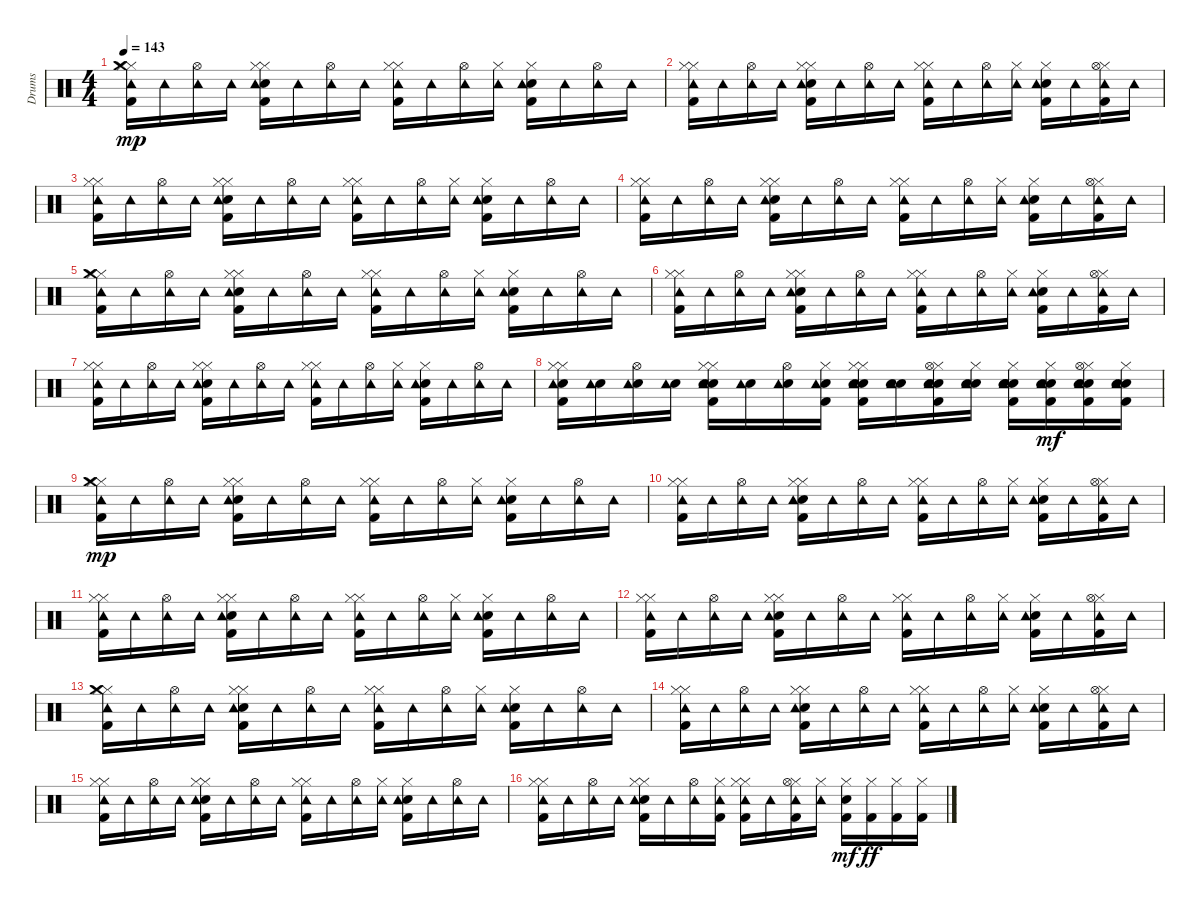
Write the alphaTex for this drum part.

\track ("Drums" "Drums") {instrument percussion}
\staff {score}
\articulation defaults
\ts (4 4)
\tempo 143
\clef neutral
\ks c
("Hi-Hat (closed)" "Kick (hit) 2" "Hi-Hat (closed)" "Tambourine (hit)" "Crash medium (hit)").16{dy mp} "Tambourine (hit)".16 ("Hi-Hat (open)" "Tambourine (hit)").16 "Tambourine (hit)".16 ("Hi-Hat (closed)" "Kick (hit) 2" "Hand Clap (hit)" "Hi-Hat (closed)" "Tambourine (hit)").16 "Tambourine (hit)".16 ("Hi-Hat (open)" "Tambourine (hit)").16 "Tambourine (hit)".16 ("Hi-Hat (closed)" "Kick (hit) 2" "Hi-Hat (closed)" "Tambourine (hit)").16 "Tambourine (hit)".16 ("Hi-Hat (open)" "Tambourine (hit)").16 ("Hi-Hat (closed)" "Tambourine (hit)").16 ("Hi-Hat (closed)" "Kick (hit) 2" "Hand Clap (hit)" "Tambourine (hit)").16 "Tambourine (hit)".16 ("Hi-Hat (open)" "Tambourine (hit)").16 "Tambourine (hit)".16 |
("Hi-Hat (closed)" "Kick (hit) 2" "Hi-Hat (closed)" "Tambourine (hit)").16 "Tambourine (hit)".16 ("Hi-Hat (open)" "Tambourine (hit)").16 "Tambourine (hit)".16 ("Hi-Hat (closed)" "Kick (hit) 2" "Hand Clap (hit)" "Hi-Hat (closed)" "Tambourine (hit)").16 "Tambourine (hit)".16 ("Hi-Hat (open)" "Tambourine (hit)").16 "Tambourine (hit)".16 ("Hi-Hat (closed)" "Kick (hit) 2" "Hi-Hat (closed)" "Tambourine (hit)").16 "Tambourine (hit)".16 ("Hi-Hat (open)" "Tambourine (hit)").16 ("Hi-Hat (closed)" "Tambourine (hit)").16 ("Hi-Hat (closed)" "Kick (hit) 2" "Hand Clap (hit)" "Tambourine (hit)").16 "Tambourine (hit)".16 ("Hi-Hat (closed)" "Kick (hit) 2" "Hi-Hat (open)" "Tambourine (hit)").16 "Tambourine (hit)".16 |
("Hi-Hat (closed)" "Kick (hit) 2" "Hi-Hat (closed)" "Tambourine (hit)").16 "Tambourine (hit)".16 ("Hi-Hat (open)" "Tambourine (hit)").16 "Tambourine (hit)".16 ("Hi-Hat (closed)" "Kick (hit) 2" "Hand Clap (hit)" "Hi-Hat (closed)" "Tambourine (hit)").16 "Tambourine (hit)".16 ("Hi-Hat (open)" "Tambourine (hit)").16 "Tambourine (hit)".16 ("Hi-Hat (closed)" "Kick (hit) 2" "Hi-Hat (closed)" "Tambourine (hit)").16 "Tambourine (hit)".16 ("Hi-Hat (open)" "Tambourine (hit)").16 ("Hi-Hat (closed)" "Tambourine (hit)").16 ("Hi-Hat (closed)" "Kick (hit) 2" "Hand Clap (hit)" "Tambourine (hit)").16 "Tambourine (hit)".16 ("Hi-Hat (open)" "Tambourine (hit)").16 "Tambourine (hit)".16 |
("Hi-Hat (closed)" "Kick (hit) 2" "Hi-Hat (closed)" "Tambourine (hit)").16 "Tambourine (hit)".16 ("Hi-Hat (open)" "Tambourine (hit)").16 "Tambourine (hit)".16 ("Hi-Hat (closed)" "Kick (hit) 2" "Hand Clap (hit)" "Hi-Hat (closed)" "Tambourine (hit)").16 "Tambourine (hit)".16 ("Hi-Hat (open)" "Tambourine (hit)").16 "Tambourine (hit)".16 ("Hi-Hat (closed)" "Kick (hit) 2" "Hi-Hat (closed)" "Tambourine (hit)").16 "Tambourine (hit)".16 ("Hi-Hat (open)" "Tambourine (hit)").16 ("Hi-Hat (closed)" "Tambourine (hit)").16 ("Hi-Hat (closed)" "Kick (hit) 2" "Hand Clap (hit)" "Tambourine (hit)").16 "Tambourine (hit)".16 ("Hi-Hat (closed)" "Kick (hit) 2" "Hi-Hat (open)" "Tambourine (hit)").16 "Tambourine (hit)".16 |
("Hi-Hat (closed)" "Kick (hit) 2" "Hi-Hat (closed)" "Tambourine (hit)" "Crash medium (hit)").16 "Tambourine (hit)".16 ("Hi-Hat (open)" "Tambourine (hit)").16 "Tambourine (hit)".16 ("Hi-Hat (closed)" "Kick (hit) 2" "Hand Clap (hit)" "Hi-Hat (closed)" "Tambourine (hit)").16 "Tambourine (hit)".16 ("Hi-Hat (open)" "Tambourine (hit)").16 "Tambourine (hit)".16 ("Hi-Hat (closed)" "Kick (hit) 2" "Hi-Hat (closed)" "Tambourine (hit)").16 "Tambourine (hit)".16 ("Hi-Hat (open)" "Tambourine (hit)").16 ("Hi-Hat (closed)" "Tambourine (hit)").16 ("Hi-Hat (closed)" "Kick (hit) 2" "Hand Clap (hit)" "Tambourine (hit)").16 "Tambourine (hit)".16 ("Hi-Hat (open)" "Tambourine (hit)").16 "Tambourine (hit)".16 |
("Hi-Hat (closed)" "Kick (hit) 2" "Hi-Hat (closed)" "Tambourine (hit)").16 "Tambourine (hit)".16 ("Hi-Hat (open)" "Tambourine (hit)").16 "Tambourine (hit)".16 ("Hi-Hat (closed)" "Kick (hit) 2" "Hand Clap (hit)" "Hi-Hat (closed)" "Tambourine (hit)").16 "Tambourine (hit)".16 ("Hi-Hat (open)" "Tambourine (hit)").16 "Tambourine (hit)".16 ("Hi-Hat (closed)" "Kick (hit) 2" "Hi-Hat (closed)" "Tambourine (hit)").16 "Tambourine (hit)".16 ("Hi-Hat (open)" "Tambourine (hit)").16 ("Hi-Hat (closed)" "Tambourine (hit)").16 ("Hi-Hat (closed)" "Kick (hit) 2" "Hand Clap (hit)" "Tambourine (hit)").16 "Tambourine (hit)".16 ("Hi-Hat (closed)" "Kick (hit) 2" "Hi-Hat (open)" "Tambourine (hit)").16 "Tambourine (hit)".16 |
("Hi-Hat (closed)" "Kick (hit) 2" "Hi-Hat (closed)" "Tambourine (hit)").16 "Tambourine (hit)".16 ("Hi-Hat (open)" "Tambourine (hit)").16 "Tambourine (hit)".16 ("Hi-Hat (closed)" "Kick (hit) 2" "Hand Clap (hit)" "Hi-Hat (closed)" "Tambourine (hit)").16 "Tambourine (hit)".16 ("Hi-Hat (open)" "Tambourine (hit)").16 "Tambourine (hit)".16 ("Hi-Hat (closed)" "Kick (hit) 2" "Hi-Hat (closed)" "Tambourine (hit)").16 "Tambourine (hit)".16 ("Hi-Hat (open)" "Tambourine (hit)").16 ("Hi-Hat (closed)" "Tambourine (hit)").16 ("Hi-Hat (closed)" "Kick (hit) 2" "Hand Clap (hit)" "Tambourine (hit)").16 "Tambourine (hit)".16 ("Hi-Hat (open)" "Tambourine (hit)").16 "Tambourine (hit)".16 |
("Hi-Hat (closed)" "Kick (hit) 2" "Snare (hit) 2" "Hi-Hat (closed)" "Tambourine (hit)").16 ("Snare (hit) 2" "Tambourine (hit)").16 ("Snare (hit) 2" "Hi-Hat (open)" "Tambourine (hit)").16 ("Snare (hit) 2" "Tambourine (hit)").16 ("Hi-Hat (closed)" "Kick (hit) 2" "Snare (hit) 2" "Hand Clap (hit)" "Hi-Hat (closed)" "Tambourine (hit)").16 ("Snare (hit) 2" "Tambourine (hit)").16 ("Snare (hit) 2" "Hi-Hat (open)" "Tambourine (hit)").16 ("Hi-Hat (closed)" "Kick (hit) 2" "Snare (hit) 2" "Tambourine (hit)").16 ("Hi-Hat (closed)" "Kick (hit) 2" "Snare (hit) 2" "Hi-Hat (closed)" "Tambourine (hit)" "Snare (hit) 2").16 ("Snare (hit) 2" "Tambourine (hit)" "Snare (hit) 2").16 ("Hi-Hat (closed)" "Kick (hit) 2" "Snare (hit) 2" "Hi-Hat (open)" "Tambourine (hit)" "Snare (hit) 2").16 ("Snare (hit) 2" "Hi-Hat (closed)" "Tambourine (hit)" "Snare (hit) 2").16 ("Hi-Hat (closed)" "Kick (hit) 2" "Snare (hit) 2" "Hand Clap (hit)" "Tambourine (hit)" "Snare (hit) 2").16 ("Hi-Hat (closed)" "Kick (hit) 2" "Snare (hit) 2" "Tambourine (hit)" "Snare (hit) 2").16{dy mf} ("Hi-Hat (closed)" "Kick (hit) 2" "Snare (hit) 2" "Hi-Hat (open)" "Tambourine (hit)" "Snare (hit) 2").16 ("Hi-Hat (closed)" "Kick (hit) 2" "Snare (hit) 2" "Tambourine (hit)" "Snare (hit) 2").16 |
("Hi-Hat (closed)" "Kick (hit) 2" "Hi-Hat (closed)" "Tambourine (hit)" "Crash medium (hit)").16{dy mp} "Tambourine (hit)".16 ("Hi-Hat (open)" "Tambourine (hit)").16 "Tambourine (hit)".16 ("Hi-Hat (closed)" "Kick (hit) 2" "Hand Clap (hit)" "Hi-Hat (closed)" "Tambourine (hit)").16 "Tambourine (hit)".16 ("Hi-Hat (open)" "Tambourine (hit)").16 "Tambourine (hit)".16 ("Hi-Hat (closed)" "Kick (hit) 2" "Hi-Hat (closed)" "Tambourine (hit)").16 "Tambourine (hit)".16 ("Hi-Hat (open)" "Tambourine (hit)").16 ("Hi-Hat (closed)" "Tambourine (hit)").16 ("Hi-Hat (closed)" "Kick (hit) 2" "Hand Clap (hit)" "Tambourine (hit)").16 "Tambourine (hit)".16 ("Hi-Hat (open)" "Tambourine (hit)").16 "Tambourine (hit)".16 |
("Hi-Hat (closed)" "Kick (hit) 2" "Hi-Hat (closed)" "Tambourine (hit)").16 "Tambourine (hit)".16 ("Hi-Hat (open)" "Tambourine (hit)").16 "Tambourine (hit)".16 ("Hi-Hat (closed)" "Kick (hit) 2" "Hand Clap (hit)" "Hi-Hat (closed)" "Tambourine (hit)").16 "Tambourine (hit)".16 ("Hi-Hat (open)" "Tambourine (hit)").16 "Tambourine (hit)".16 ("Hi-Hat (closed)" "Kick (hit) 2" "Hi-Hat (closed)" "Tambourine (hit)").16 "Tambourine (hit)".16 ("Hi-Hat (open)" "Tambourine (hit)").16 ("Hi-Hat (closed)" "Tambourine (hit)").16 ("Hi-Hat (closed)" "Kick (hit) 2" "Hand Clap (hit)" "Tambourine (hit)").16 "Tambourine (hit)".16 ("Hi-Hat (closed)" "Kick (hit) 2" "Hi-Hat (open)" "Tambourine (hit)").16 "Tambourine (hit)".16 |
("Hi-Hat (closed)" "Kick (hit) 2" "Hi-Hat (closed)" "Tambourine (hit)").16 "Tambourine (hit)".16 ("Hi-Hat (open)" "Tambourine (hit)").16 "Tambourine (hit)".16 ("Hi-Hat (closed)" "Kick (hit) 2" "Hand Clap (hit)" "Hi-Hat (closed)" "Tambourine (hit)").16 "Tambourine (hit)".16 ("Hi-Hat (open)" "Tambourine (hit)").16 "Tambourine (hit)".16 ("Hi-Hat (closed)" "Kick (hit) 2" "Hi-Hat (closed)" "Tambourine (hit)").16 "Tambourine (hit)".16 ("Hi-Hat (open)" "Tambourine (hit)").16 ("Hi-Hat (closed)" "Tambourine (hit)").16 ("Hi-Hat (closed)" "Kick (hit) 2" "Hand Clap (hit)" "Tambourine (hit)").16 "Tambourine (hit)".16 ("Hi-Hat (open)" "Tambourine (hit)").16 "Tambourine (hit)".16 |
("Hi-Hat (closed)" "Kick (hit) 2" "Hi-Hat (closed)" "Tambourine (hit)").16 "Tambourine (hit)".16 ("Hi-Hat (open)" "Tambourine (hit)").16 "Tambourine (hit)".16 ("Hi-Hat (closed)" "Kick (hit) 2" "Hand Clap (hit)" "Hi-Hat (closed)" "Tambourine (hit)").16 "Tambourine (hit)".16 ("Hi-Hat (open)" "Tambourine (hit)").16 "Tambourine (hit)".16 ("Hi-Hat (closed)" "Kick (hit) 2" "Hi-Hat (closed)" "Tambourine (hit)").16 "Tambourine (hit)".16 ("Hi-Hat (open)" "Tambourine (hit)").16 ("Hi-Hat (closed)" "Tambourine (hit)").16 ("Hi-Hat (closed)" "Kick (hit) 2" "Hand Clap (hit)" "Tambourine (hit)").16 "Tambourine (hit)".16 ("Hi-Hat (closed)" "Kick (hit) 2" "Hi-Hat (open)" "Tambourine (hit)").16 "Tambourine (hit)".16 |
("Hi-Hat (closed)" "Kick (hit) 2" "Hi-Hat (closed)" "Tambourine (hit)" "Crash medium (hit)").16 "Tambourine (hit)".16 ("Hi-Hat (open)" "Tambourine (hit)").16 "Tambourine (hit)".16 ("Hi-Hat (closed)" "Kick (hit) 2" "Hand Clap (hit)" "Hi-Hat (closed)" "Tambourine (hit)").16 "Tambourine (hit)".16 ("Hi-Hat (open)" "Tambourine (hit)").16 "Tambourine (hit)".16 ("Hi-Hat (closed)" "Kick (hit) 2" "Hi-Hat (closed)" "Tambourine (hit)").16 "Tambourine (hit)".16 ("Hi-Hat (open)" "Tambourine (hit)").16 ("Hi-Hat (closed)" "Tambourine (hit)").16 ("Hi-Hat (closed)" "Kick (hit) 2" "Hand Clap (hit)" "Tambourine (hit)").16 "Tambourine (hit)".16 ("Hi-Hat (open)" "Tambourine (hit)").16 "Tambourine (hit)".16 |
("Hi-Hat (closed)" "Kick (hit) 2" "Hi-Hat (closed)" "Tambourine (hit)").16 "Tambourine (hit)".16 ("Hi-Hat (open)" "Tambourine (hit)").16 "Tambourine (hit)".16 ("Hi-Hat (closed)" "Kick (hit) 2" "Hand Clap (hit)" "Hi-Hat (closed)" "Tambourine (hit)").16 "Tambourine (hit)".16 ("Hi-Hat (open)" "Tambourine (hit)").16 "Tambourine (hit)".16 ("Hi-Hat (closed)" "Kick (hit) 2" "Hi-Hat (closed)" "Tambourine (hit)").16 "Tambourine (hit)".16 ("Hi-Hat (open)" "Tambourine (hit)").16 ("Hi-Hat (closed)" "Tambourine (hit)").16 ("Hi-Hat (closed)" "Kick (hit) 2" "Hand Clap (hit)" "Tambourine (hit)").16 "Tambourine (hit)".16 ("Hi-Hat (closed)" "Kick (hit) 2" "Hi-Hat (open)" "Tambourine (hit)").16 "Tambourine (hit)".16 |
("Hi-Hat (closed)" "Kick (hit) 2" "Hi-Hat (closed)" "Tambourine (hit)").16 "Tambourine (hit)".16 ("Hi-Hat (open)" "Tambourine (hit)").16 "Tambourine (hit)".16 ("Hi-Hat (closed)" "Kick (hit) 2" "Hand Clap (hit)" "Hi-Hat (closed)" "Tambourine (hit)").16 "Tambourine (hit)".16 ("Hi-Hat (open)" "Tambourine (hit)").16 "Tambourine (hit)".16 ("Hi-Hat (closed)" "Kick (hit) 2" "Hi-Hat (closed)" "Tambourine (hit)").16 "Tambourine (hit)".16 ("Hi-Hat (open)" "Tambourine (hit)").16 ("Hi-Hat (closed)" "Tambourine (hit)").16 ("Hi-Hat (closed)" "Kick (hit) 2" "Hand Clap (hit)" "Tambourine (hit)").16 "Tambourine (hit)".16 ("Hi-Hat (open)" "Tambourine (hit)").16 "Tambourine (hit)".16 |
("Hi-Hat (closed)" "Kick (hit) 2" "Hi-Hat (closed)" "Tambourine (hit)").16 "Tambourine (hit)".16 ("Hi-Hat (open)" "Tambourine (hit)").16 "Tambourine (hit)".16 ("Hi-Hat (closed)" "Kick (hit) 2" "Hand Clap (hit)" "Hi-Hat (closed)" "Tambourine (hit)").16 "Tambourine (hit)".16 ("Hi-Hat (open)" "Tambourine (hit)").16 ("Hi-Hat (closed)" "Kick (hit) 2" "Tambourine (hit)").16 ("Hi-Hat (closed)" "Kick (hit) 2" "Hi-Hat (closed)" "Tambourine (hit)").16 "Tambourine (hit)".16 ("Hi-Hat (closed)" "Kick (hit) 2" "Hi-Hat (open)" "Tambourine (hit)").16 ("Hi-Hat (closed)" "Tambourine (hit)").16 ("Hi-Hat (closed)" "Kick (hit) 2" "Hand Clap (hit)").16{dy mf} ("Hi-Hat (closed)" "Kick (hit) 2").16{dy ff} ("Hi-Hat (closed)" "Kick (hit) 2").16 ("Hi-Hat (closed)" "Kick (hit) 2").16
